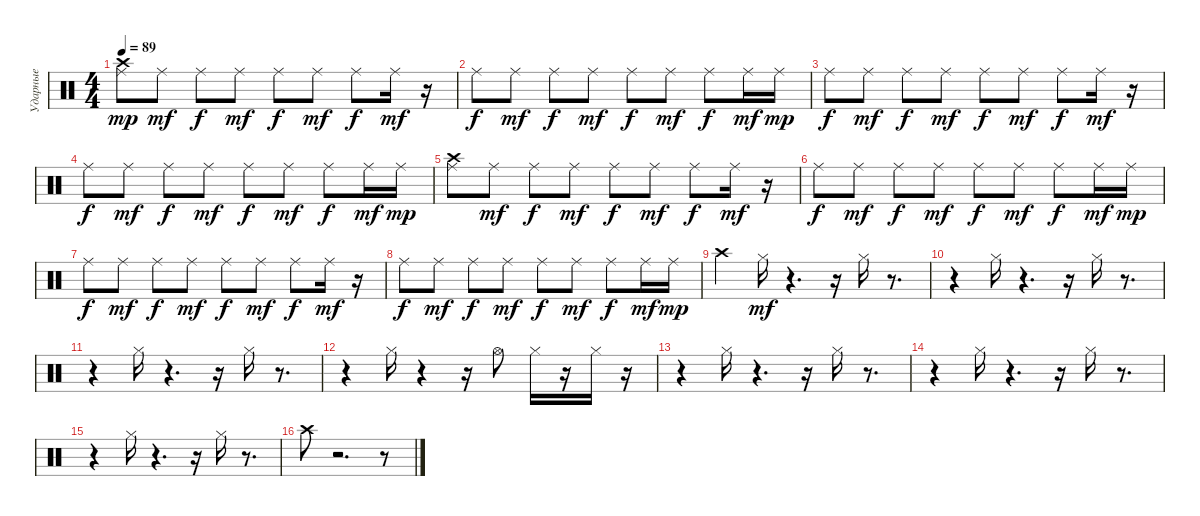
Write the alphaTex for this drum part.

\track ("Ударные" "Ударные") {instrument percussion}
\staff {score}
\articulation defaults
\ts (4 4)
\tempo 89
\clef neutral
\ks c
("Ride (middle)" "Crash high (hit)").8{dy mp} "Ride (middle)".8{dy mf} "Ride (middle)".8{dy f} "Ride (middle)".8{dy mf} "Ride (middle)".8{dy f} "Ride (middle)".8{dy mf} "Ride (middle)".8{dy f} "Ride (middle)".16{dy mf} r.16 |
"Ride (middle)".8{dy f} "Ride (middle)".8{dy mf} "Ride (middle)".8{dy f} "Ride (middle)".8{dy mf} "Ride (middle)".8{dy f} "Ride (middle)".8{dy mf} "Ride (middle)".8{dy f} "Ride (middle)".16{dy mf} "Ride (middle)".16{dy mp} |
"Ride (middle)".8{dy f} "Ride (middle)".8{dy mf} "Ride (middle)".8{dy f} "Ride (middle)".8{dy mf} "Ride (middle)".8{dy f} "Ride (middle)".8{dy mf} "Ride (middle)".8{dy f} "Ride (middle)".16{dy mf} r.16 |
"Ride (middle)".8{dy f} "Ride (middle)".8{dy mf} "Ride (middle)".8{dy f} "Ride (middle)".8{dy mf} "Ride (middle)".8{dy f} "Ride (middle)".8{dy mf} "Ride (middle)".8{dy f} "Ride (middle)".16{dy mf} "Ride (middle)".16{dy mp} |
("Ride (middle)" "Crash high (hit)").8 "Ride (middle)".8{dy mf} "Ride (middle)".8{dy f} "Ride (middle)".8{dy mf} "Ride (middle)".8{dy f} "Ride (middle)".8{dy mf} "Ride (middle)".8{dy f} "Ride (middle)".16{dy mf} r.16 |
"Ride (middle)".8{dy f} "Ride (middle)".8{dy mf} "Ride (middle)".8{dy f} "Ride (middle)".8{dy mf} "Ride (middle)".8{dy f} "Ride (middle)".8{dy mf} "Ride (middle)".8{dy f} "Ride (middle)".16{dy mf} "Ride (middle)".16{dy mp} |
"Ride (middle)".8{dy f} "Ride (middle)".8{dy mf} "Ride (middle)".8{dy f} "Ride (middle)".8{dy mf} "Ride (middle)".8{dy f} "Ride (middle)".8{dy mf} "Ride (middle)".8{dy f} "Ride (middle)".16{dy mf} r.16 |
"Ride (middle)".8{dy f} "Ride (middle)".8{dy mf} "Ride (middle)".8{dy f} "Ride (middle)".8{dy mf} "Ride (middle)".8{dy f} "Ride (middle)".8{dy mf} "Ride (middle)".8{dy f} "Ride (middle)".16{dy mf} "Ride (middle)".16{dy mp} |
"Crash high (hit)".4 "Hi-Hat (closed)".16{dy mf} r.4{d} r.16 "Hi-Hat (closed)".16 r.8{d} |
r.4 "Hi-Hat (closed)".16 r.4{d} r.16 "Hi-Hat (closed)".16 r.8{d} |
r.4 "Hi-Hat (closed)".16 r.4{d} r.16 "Hi-Hat (closed)".16 r.8{d} |
r.4 "Hi-Hat (closed)".16 r.4 r.16 "Hi-Hat (open)".8 "Hi-Hat (closed)".16 r.16 "Hi-Hat (closed)".16 r.16 |
r.4 "Hi-Hat (closed)".16 r.4{d} r.16 "Hi-Hat (closed)".16 r.8{d} |
r.4 "Hi-Hat (closed)".16 r.4{d} r.16 "Hi-Hat (closed)".16 r.8{d} |
r.4 "Hi-Hat (closed)".16 r.4{d} r.16 "Hi-Hat (closed)".16 r.8{d} |
"Crash high (hit)".8 r.2{d} r.8
